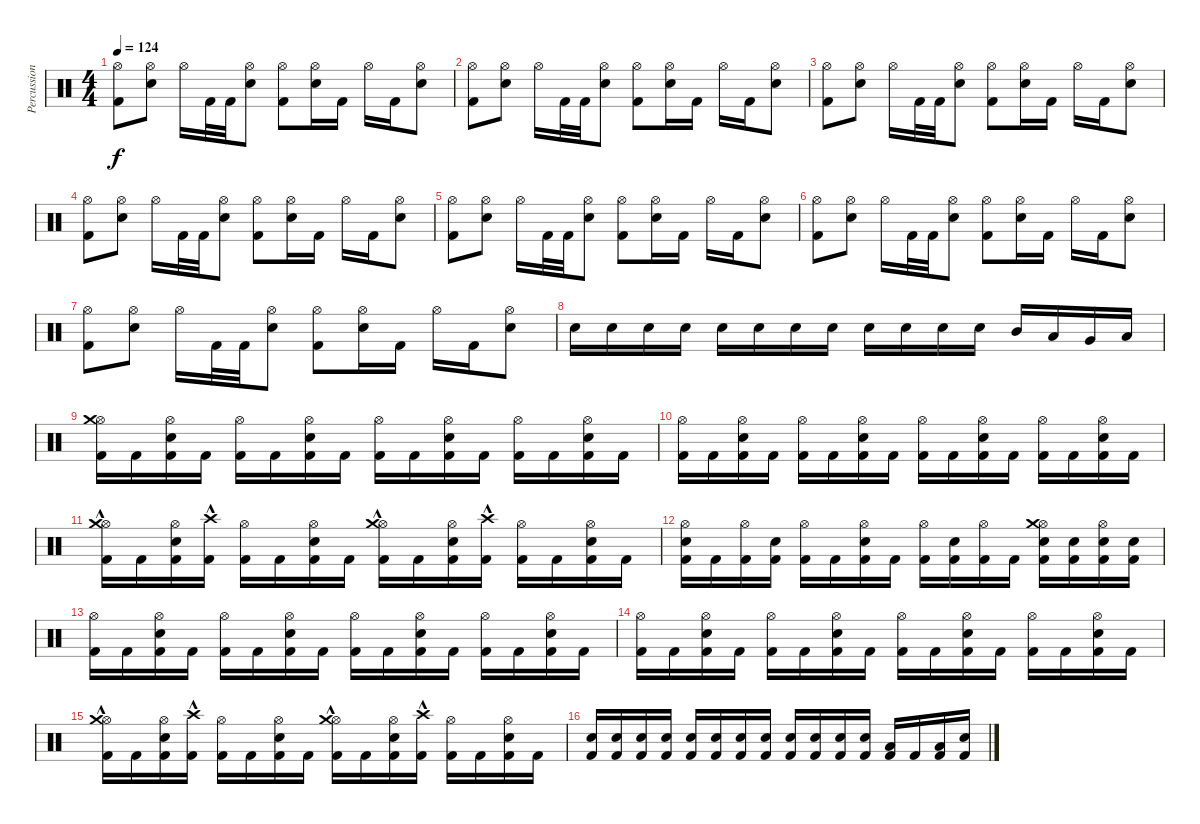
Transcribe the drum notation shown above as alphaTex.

\track ("Percussion" "Percussion") {instrument percussion}
\staff {score}
\articulation defaults
\ts (4 4)
\tempo 124
\clef neutral
\ks c
("Kick (hit) 2" "Hi-Hat (open)").8{dy f} ("Electric Snare (hit)" "Hi-Hat (open)").8 "Hi-Hat (open)".16 "Kick (hit) 2".32 "Kick (hit) 2".32 ("Electric Snare (hit)" "Hi-Hat (open)").8 ("Kick (hit) 2" "Hi-Hat (open)").8 ("Electric Snare (hit)" "Hi-Hat (open)").16 "Kick (hit) 2".16 "Hi-Hat (open)".16 "Kick (hit) 2".16 ("Electric Snare (hit)" "Hi-Hat (open)").8 |
("Kick (hit) 2" "Hi-Hat (open)").8 ("Electric Snare (hit)" "Hi-Hat (open)").8 "Hi-Hat (open)".16 "Kick (hit) 2".32 "Kick (hit) 2".32 ("Electric Snare (hit)" "Hi-Hat (open)").8 ("Kick (hit) 2" "Hi-Hat (open)").8 ("Electric Snare (hit)" "Hi-Hat (open)").16 "Kick (hit) 2".16 "Hi-Hat (open)".16 "Kick (hit) 2".16 ("Electric Snare (hit)" "Hi-Hat (open)").8 |
("Kick (hit) 2" "Hi-Hat (open)").8 ("Electric Snare (hit)" "Hi-Hat (open)").8 "Hi-Hat (open)".16 "Kick (hit) 2".32 "Kick (hit) 2".32 ("Electric Snare (hit)" "Hi-Hat (open)").8 ("Kick (hit) 2" "Hi-Hat (open)").8 ("Electric Snare (hit)" "Hi-Hat (open)").16 "Kick (hit) 2".16 "Hi-Hat (open)".16 "Kick (hit) 2".16 ("Electric Snare (hit)" "Hi-Hat (open)").8 |
("Kick (hit) 2" "Hi-Hat (open)").8 ("Electric Snare (hit)" "Hi-Hat (open)").8 "Hi-Hat (open)".16 "Kick (hit) 2".32 "Kick (hit) 2".32 ("Electric Snare (hit)" "Hi-Hat (open)").8 ("Kick (hit) 2" "Hi-Hat (open)").8 ("Electric Snare (hit)" "Hi-Hat (open)").16 "Kick (hit) 2".16 "Hi-Hat (open)".16 "Kick (hit) 2".16 ("Electric Snare (hit)" "Hi-Hat (open)").8 |
("Kick (hit) 2" "Hi-Hat (open)").8 ("Electric Snare (hit)" "Hi-Hat (open)").8 "Hi-Hat (open)".16 "Kick (hit) 2".32 "Kick (hit) 2".32 ("Electric Snare (hit)" "Hi-Hat (open)").8 ("Kick (hit) 2" "Hi-Hat (open)").8 ("Electric Snare (hit)" "Hi-Hat (open)").16 "Kick (hit) 2".16 "Hi-Hat (open)".16 "Kick (hit) 2".16 ("Electric Snare (hit)" "Hi-Hat (open)").8 |
("Kick (hit) 2" "Hi-Hat (open)").8 ("Electric Snare (hit)" "Hi-Hat (open)").8 "Hi-Hat (open)".16 "Kick (hit) 2".32 "Kick (hit) 2".32 ("Electric Snare (hit)" "Hi-Hat (open)").8 ("Kick (hit) 2" "Hi-Hat (open)").8 ("Electric Snare (hit)" "Hi-Hat (open)").16 "Kick (hit) 2".16 "Hi-Hat (open)".16 "Kick (hit) 2".16 ("Electric Snare (hit)" "Hi-Hat (open)").8 |
("Kick (hit) 2" "Hi-Hat (open)").8 ("Electric Snare (hit)" "Hi-Hat (open)").8 "Hi-Hat (open)".16 "Kick (hit) 2".32 "Kick (hit) 2".32 ("Electric Snare (hit)" "Hi-Hat (open)").8 ("Kick (hit) 2" "Hi-Hat (open)").8 ("Electric Snare (hit)" "Hi-Hat (open)").16 "Kick (hit) 2".16 "Hi-Hat (open)".16 "Kick (hit) 2".16 ("Electric Snare (hit)" "Hi-Hat (open)").8 |
"Electric Snare (hit)".16 "Electric Snare (hit)".16 "Electric Snare (hit)".16 "Electric Snare (hit)".16 "Electric Snare (hit)".16 "Electric Snare (hit)".16 "Electric Snare (hit)".16 "Electric Snare (hit)".16 "Electric Snare (hit)".16 "Electric Snare (hit)".16 "Electric Snare (hit)".16 "Electric Snare (hit)".16 "Mid Tom (hit)".16 "Low Tom (hit)".16 "Very Low Tom (hit)".16 "Low Floor Tom (hit)".16 |
("Kick (hit) 2" "Hi-Hat (open)" "Crash medium (hit)").16 "Kick (hit) 2".16 ("Kick (hit) 2" "Electric Snare (hit)" "Hi-Hat (open)").16 "Kick (hit) 2".16 ("Kick (hit) 2" "Hi-Hat (open)").16 "Kick (hit) 2".16 ("Kick (hit) 2" "Electric Snare (hit)" "Hi-Hat (open)").16 "Kick (hit) 2".16 ("Kick (hit) 2" "Hi-Hat (open)").16 "Kick (hit) 2".16 ("Kick (hit) 2" "Electric Snare (hit)" "Hi-Hat (open)").16 "Kick (hit) 2".16 ("Kick (hit) 2" "Hi-Hat (open)").16 "Kick (hit) 2".16 ("Kick (hit) 2" "Electric Snare (hit)" "Hi-Hat (open)").16 "Kick (hit) 2".16 |
("Kick (hit) 2" "Hi-Hat (open)").16 "Kick (hit) 2".16 ("Kick (hit) 2" "Electric Snare (hit)" "Hi-Hat (open)").16 "Kick (hit) 2".16 ("Kick (hit) 2" "Hi-Hat (open)").16 "Kick (hit) 2".16 ("Kick (hit) 2" "Electric Snare (hit)" "Hi-Hat (open)").16 "Kick (hit) 2".16 ("Kick (hit) 2" "Hi-Hat (open)").16 "Kick (hit) 2".16 ("Kick (hit) 2" "Electric Snare (hit)" "Hi-Hat (open)").16 "Kick (hit) 2".16 ("Kick (hit) 2" "Hi-Hat (open)").16 "Kick (hit) 2".16 ("Kick (hit) 2" "Electric Snare (hit)" "Hi-Hat (open)").16 "Kick (hit) 2".16 |
("Kick (hit) 2" "Hi-Hat (open)" "Crash medium (hit)"{hac}).16 "Kick (hit) 2".16 ("Kick (hit) 2" "Electric Snare (hit)" "Hi-Hat (open)").16 ("Kick (hit) 2" "Crash high (hit)"{hac}).16 ("Kick (hit) 2" "Hi-Hat (open)").16 "Kick (hit) 2".16 ("Kick (hit) 2" "Electric Snare (hit)" "Hi-Hat (open)").16 "Kick (hit) 2".16 ("Kick (hit) 2" "Hi-Hat (open)" "Crash medium (hit)"{hac}).16 "Kick (hit) 2".16 ("Kick (hit) 2" "Electric Snare (hit)" "Hi-Hat (open)").16 ("Kick (hit) 2" "Crash high (hit)"{hac}).16 ("Kick (hit) 2" "Hi-Hat (open)").16 "Kick (hit) 2".16 ("Kick (hit) 2" "Electric Snare (hit)" "Hi-Hat (open)").16 "Kick (hit) 2".16 |
("Kick (hit) 2" "Electric Snare (hit)" "Hi-Hat (open)").16 "Kick (hit) 2".16 ("Kick (hit) 2" "Hi-Hat (open)").16 ("Kick (hit) 2" "Electric Snare (hit)").16 ("Kick (hit) 2" "Hi-Hat (open)").16 "Kick (hit) 2".16 ("Kick (hit) 2" "Electric Snare (hit)" "Hi-Hat (open)").16 "Kick (hit) 2".16 ("Kick (hit) 2" "Hi-Hat (open)").16 ("Kick (hit) 2" "Electric Snare (hit)").16 ("Kick (hit) 2" "Hi-Hat (open)").16 "Kick (hit) 2".16 ("Kick (hit) 2" "Electric Snare (hit)" "Hi-Hat (open)" "Crash medium (hit)").16 ("Kick (hit) 2" "Electric Snare (hit)").16 ("Kick (hit) 2" "Electric Snare (hit)" "Hi-Hat (open)").16 ("Kick (hit) 2" "Electric Snare (hit)").16 |
("Kick (hit) 2" "Hi-Hat (open)").16 "Kick (hit) 2".16 ("Kick (hit) 2" "Electric Snare (hit)" "Hi-Hat (open)").16 "Kick (hit) 2".16 ("Kick (hit) 2" "Hi-Hat (open)").16 "Kick (hit) 2".16 ("Kick (hit) 2" "Electric Snare (hit)" "Hi-Hat (open)").16 "Kick (hit) 2".16 ("Kick (hit) 2" "Hi-Hat (open)").16 "Kick (hit) 2".16 ("Kick (hit) 2" "Electric Snare (hit)" "Hi-Hat (open)").16 "Kick (hit) 2".16 ("Kick (hit) 2" "Hi-Hat (open)").16 "Kick (hit) 2".16 ("Kick (hit) 2" "Electric Snare (hit)" "Hi-Hat (open)").16 "Kick (hit) 2".16 |
("Kick (hit) 2" "Hi-Hat (open)").16 "Kick (hit) 2".16 ("Kick (hit) 2" "Electric Snare (hit)" "Hi-Hat (open)").16 "Kick (hit) 2".16 ("Kick (hit) 2" "Hi-Hat (open)").16 "Kick (hit) 2".16 ("Kick (hit) 2" "Electric Snare (hit)" "Hi-Hat (open)").16 "Kick (hit) 2".16 ("Kick (hit) 2" "Hi-Hat (open)").16 "Kick (hit) 2".16 ("Kick (hit) 2" "Electric Snare (hit)" "Hi-Hat (open)").16 "Kick (hit) 2".16 ("Kick (hit) 2" "Hi-Hat (open)").16 "Kick (hit) 2".16 ("Kick (hit) 2" "Electric Snare (hit)" "Hi-Hat (open)").16 "Kick (hit) 2".16 |
("Kick (hit) 2" "Hi-Hat (open)" "Crash medium (hit)"{hac}).16 "Kick (hit) 2".16 ("Kick (hit) 2" "Electric Snare (hit)" "Hi-Hat (open)").16 ("Kick (hit) 2" "Crash high (hit)"{hac}).16 ("Kick (hit) 2" "Hi-Hat (open)").16 "Kick (hit) 2".16 ("Kick (hit) 2" "Electric Snare (hit)" "Hi-Hat (open)").16 "Kick (hit) 2".16 ("Kick (hit) 2" "Hi-Hat (open)" "Crash medium (hit)"{hac}).16 "Kick (hit) 2".16 ("Kick (hit) 2" "Electric Snare (hit)" "Hi-Hat (open)").16 ("Kick (hit) 2" "Crash high (hit)"{hac}).16 ("Kick (hit) 2" "Hi-Hat (open)").16 "Kick (hit) 2".16 ("Kick (hit) 2" "Electric Snare (hit)" "Hi-Hat (open)").16 "Kick (hit) 2".16 |
("Kick (hit) 2" "Electric Snare (hit)").16 ("Kick (hit) 2" "Electric Snare (hit)").16 ("Kick (hit) 2" "Electric Snare (hit)").16 ("Kick (hit) 2" "Electric Snare (hit)").16 ("Kick (hit) 2" "Electric Snare (hit)").16 ("Kick (hit) 2" "Electric Snare (hit)").16 ("Kick (hit) 2" "Electric Snare (hit)").16 ("Kick (hit) 2" "Electric Snare (hit)").16 ("Kick (hit) 2" "Electric Snare (hit)").16 ("Kick (hit) 2" "Electric Snare (hit)").16 ("Kick (hit) 2" "Electric Snare (hit)").16 ("Kick (hit) 2" "Electric Snare (hit)").16 ("Kick (hit) 2" "Low Tom (hit)").16 "Kick (hit) 2".16 ("Kick (hit) 2" "Low Floor Tom (hit)").16 ("Kick (hit) 2" "Electric Snare (hit)").16
